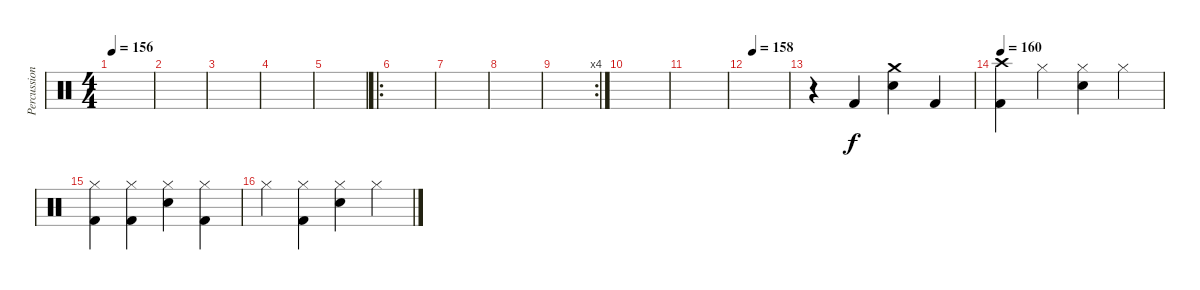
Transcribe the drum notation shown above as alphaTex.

\track ("Percussion" "Percussion") {instrument percussion}
\staff {score}
\articulation defaults
\ts (4 4)
\tempo 156
\clef neutral
\ks c
|
|
|
|
|
\ro
|
|
|
\rc 4
|
|
|
\tempo (158 0.125)
|
r.4 "Kick (hit) 2".4 ("Crash medium (hit)" "Snare (hit) 2").4 "Kick (hit) 2".4 |
\tempo 160
("Crash high (hit)" "Kick (hit) 2").4 "Hi-Hat (closed)".4 ("Hi-Hat (closed)" "Snare (hit) 2").4 "Hi-Hat (closed)".4 |
("Hi-Hat (closed)" "Kick (hit) 2").4 ("Hi-Hat (closed)" "Kick (hit) 2").4 ("Hi-Hat (closed)" "Snare (hit) 2").4 ("Hi-Hat (closed)" "Kick (hit) 2").4 |
"Hi-Hat (closed)".4 ("Hi-Hat (closed)" "Kick (hit) 2").4 ("Hi-Hat (closed)" "Snare (hit) 2").4 "Hi-Hat (closed)".4
